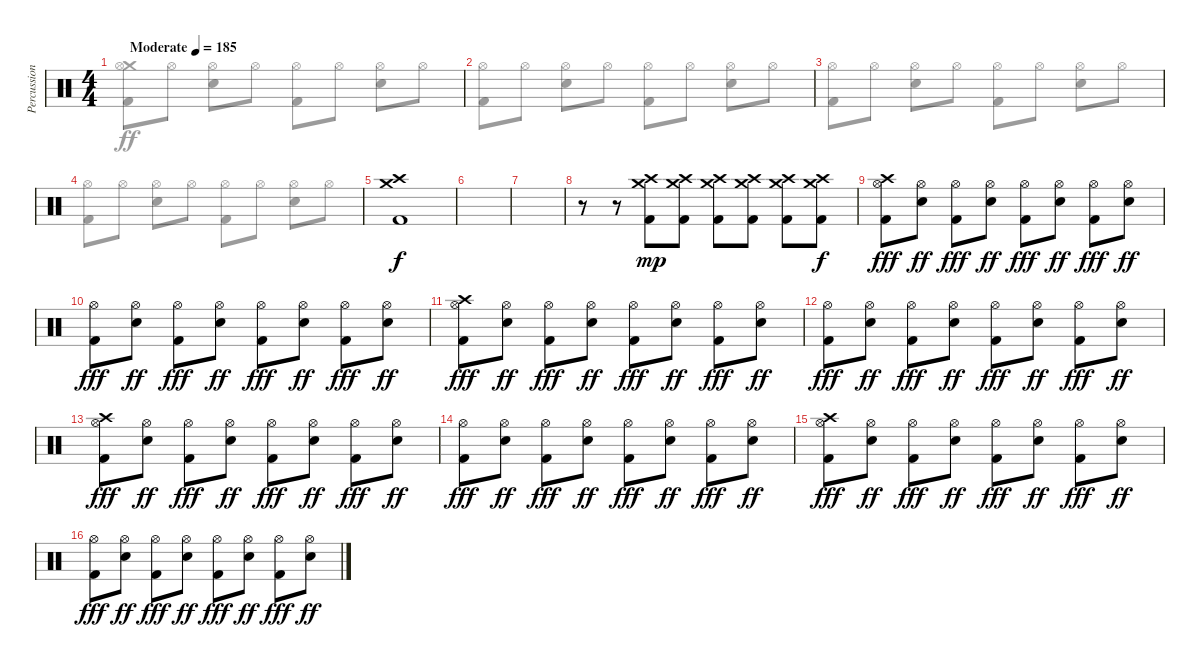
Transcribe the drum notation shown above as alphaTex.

\track ("Percussion" "Percussion") {instrument percussion}
\staff
\articulation defaults
\voice
\ts (4 4)
\tempo (185 "Moderate")
\clef neutral
\ks c
|
|
|
|
("Crash high (hit)" "Crash medium (hit)" "Kick (hit) 2").1 |
|
|
r.8 r.8 ("Crash high (hit)" "Crash medium (hit)" "Kick (hit) 2").8{dy mp} ("Crash high (hit)" "Crash medium (hit)" "Kick (hit) 2").8 ("Crash high (hit)" "Crash medium (hit)" "Kick (hit) 2").8 ("Crash high (hit)" "Crash medium (hit)" "Kick (hit) 2").8 ("Crash high (hit)" "Crash medium (hit)" "Kick (hit) 2").8 ("Crash high (hit)" "Crash medium (hit)" "Kick (hit) 2").8{dy f} |
("Crash high (hit)" "Hi-Hat (open)" "Kick (hit) 2").8{dy fff} ("Hi-Hat (open)" "Electric Snare (hit)").8{dy ff} ("Hi-Hat (open)" "Kick (hit) 2").8{dy fff} ("Hi-Hat (open)" "Electric Snare (hit)").8{dy ff} ("Hi-Hat (open)" "Kick (hit) 2").8{dy fff} ("Hi-Hat (open)" "Electric Snare (hit)").8{dy ff} ("Hi-Hat (open)" "Kick (hit) 2").8{dy fff} ("Hi-Hat (open)" "Electric Snare (hit)").8{dy ff} |
("Hi-Hat (open)" "Kick (hit) 2").8{dy fff} ("Hi-Hat (open)" "Electric Snare (hit)").8{dy ff} ("Hi-Hat (open)" "Kick (hit) 2").8{dy fff} ("Hi-Hat (open)" "Electric Snare (hit)").8{dy ff} ("Hi-Hat (open)" "Kick (hit) 2").8{dy fff} ("Hi-Hat (open)" "Electric Snare (hit)").8{dy ff} ("Hi-Hat (open)" "Kick (hit) 2").8{dy fff} ("Hi-Hat (open)" "Electric Snare (hit)").8{dy ff} |
("Crash high (hit)" "Hi-Hat (open)" "Kick (hit) 2").8{dy fff} ("Hi-Hat (open)" "Electric Snare (hit)").8{dy ff} ("Hi-Hat (open)" "Kick (hit) 2").8{dy fff} ("Hi-Hat (open)" "Electric Snare (hit)").8{dy ff} ("Hi-Hat (open)" "Kick (hit) 2").8{dy fff} ("Hi-Hat (open)" "Electric Snare (hit)").8{dy ff} ("Hi-Hat (open)" "Kick (hit) 2").8{dy fff} ("Hi-Hat (open)" "Electric Snare (hit)").8{dy ff} |
("Hi-Hat (open)" "Kick (hit) 2").8{dy fff} ("Hi-Hat (open)" "Electric Snare (hit)").8{dy ff} ("Hi-Hat (open)" "Kick (hit) 2").8{dy fff} ("Hi-Hat (open)" "Electric Snare (hit)").8{dy ff} ("Hi-Hat (open)" "Kick (hit) 2").8{dy fff} ("Hi-Hat (open)" "Electric Snare (hit)").8{dy ff} ("Hi-Hat (open)" "Kick (hit) 2").8{dy fff} ("Hi-Hat (open)" "Electric Snare (hit)").8{dy ff} |
("Crash high (hit)" "Hi-Hat (open)" "Kick (hit) 2").8{dy fff} ("Hi-Hat (open)" "Electric Snare (hit)").8{dy ff} ("Hi-Hat (open)" "Kick (hit) 2").8{dy fff} ("Hi-Hat (open)" "Electric Snare (hit)").8{dy ff} ("Hi-Hat (open)" "Kick (hit) 2").8{dy fff} ("Hi-Hat (open)" "Electric Snare (hit)").8{dy ff} ("Hi-Hat (open)" "Kick (hit) 2").8{dy fff} ("Hi-Hat (open)" "Electric Snare (hit)").8{dy ff} |
("Hi-Hat (open)" "Kick (hit) 2").8{dy fff} ("Hi-Hat (open)" "Electric Snare (hit)").8{dy ff} ("Hi-Hat (open)" "Kick (hit) 2").8{dy fff} ("Hi-Hat (open)" "Electric Snare (hit)").8{dy ff} ("Hi-Hat (open)" "Kick (hit) 2").8{dy fff} ("Hi-Hat (open)" "Electric Snare (hit)").8{dy ff} ("Hi-Hat (open)" "Kick (hit) 2").8{dy fff} ("Hi-Hat (open)" "Electric Snare (hit)").8{dy ff} |
("Crash high (hit)" "Hi-Hat (open)" "Kick (hit) 2").8{dy fff} ("Hi-Hat (open)" "Electric Snare (hit)").8{dy ff} ("Hi-Hat (open)" "Kick (hit) 2").8{dy fff} ("Hi-Hat (open)" "Electric Snare (hit)").8{dy ff} ("Hi-Hat (open)" "Kick (hit) 2").8{dy fff} ("Hi-Hat (open)" "Electric Snare (hit)").8{dy ff} ("Hi-Hat (open)" "Kick (hit) 2").8{dy fff} ("Hi-Hat (open)" "Electric Snare (hit)").8{dy ff} |
("Hi-Hat (open)" "Kick (hit) 2").8{dy fff} ("Hi-Hat (open)" "Electric Snare (hit)").8{dy ff} ("Hi-Hat (open)" "Kick (hit) 2").8{dy fff} ("Hi-Hat (open)" "Electric Snare (hit)").8{dy ff} ("Hi-Hat (open)" "Kick (hit) 2").8{dy fff} ("Hi-Hat (open)" "Electric Snare (hit)").8{dy ff} ("Hi-Hat (open)" "Kick (hit) 2").8{dy fff} ("Hi-Hat (open)" "Electric Snare (hit)").8{dy ff}
\voice
\clef neutral
\ottava regular
\simile none
\ks c
("Crash medium (hit)" "Hi-Hat (open)" "Kick (hit) 2").8{dy ff} "Hi-Hat (open)".8 ("Hi-Hat (open)" "Electric Snare (hit)").8 "Hi-Hat (open)".8 ("Hi-Hat (open)" "Kick (hit) 2").8 "Hi-Hat (open)".8 ("Hi-Hat (open)" "Electric Snare (hit)").8 "Hi-Hat (open)".8 |
("Hi-Hat (open)" "Kick (hit) 2").8 "Hi-Hat (open)".8 ("Hi-Hat (open)" "Electric Snare (hit)").8 "Hi-Hat (open)".8 ("Hi-Hat (open)" "Kick (hit) 2").8 "Hi-Hat (open)".8 ("Hi-Hat (open)" "Electric Snare (hit)").8 "Hi-Hat (open)".8 |
("Hi-Hat (open)" "Kick (hit) 2").8 "Hi-Hat (open)".8 ("Hi-Hat (open)" "Electric Snare (hit)").8 "Hi-Hat (open)".8 ("Hi-Hat (open)" "Kick (hit) 2").8 "Hi-Hat (open)".8 ("Hi-Hat (open)" "Electric Snare (hit)").8 "Hi-Hat (open)".8 |
("Hi-Hat (open)" "Kick (hit) 2").8 "Hi-Hat (open)".8 ("Hi-Hat (open)" "Electric Snare (hit)").8 "Hi-Hat (open)".8 ("Hi-Hat (open)" "Kick (hit) 2").8 "Hi-Hat (open)".8 ("Hi-Hat (open)" "Electric Snare (hit)").8 "Hi-Hat (open)".8 |
|
|
|
|
|
|
|
|
|
|
|
